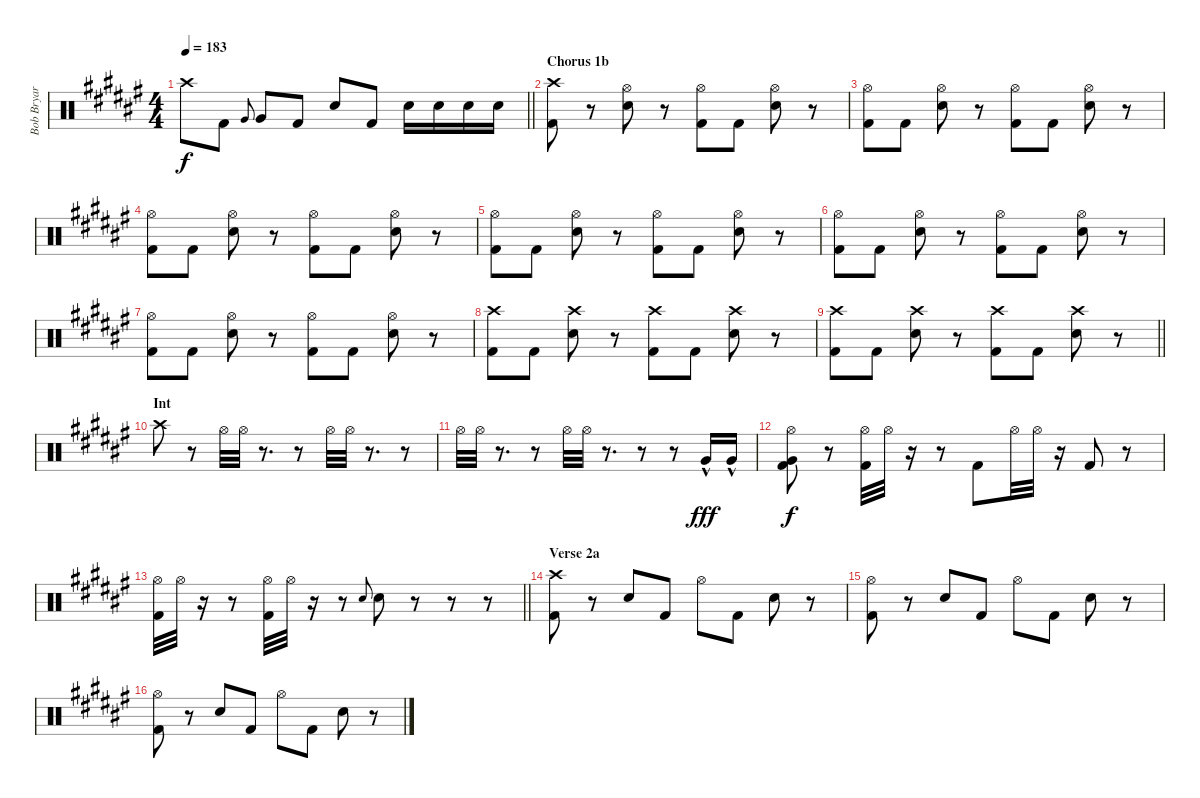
\track ("Bob Bryar" "Bob Bryar") {instrument percussion}
\staff {score}
\articulation defaults
\ts (4 4)
\tempo 183
\clef neutral
\barLineRight lightlight
\ks d#minor "Crash high (hit)".8{dy f} "Kick (hit) 2".8 "Very Low Tom (hit)".8{gr onbeat} "Very Low Tom (hit)".8 "Kick (hit) 2".8 "Electric Snare (hit)".8 "Kick (hit) 2".8 "Electric Snare (hit)".16 "Electric Snare (hit)".16 "Electric Snare (hit)".16 "Electric Snare (hit)".16
|
\section ("" "Chorus 1b")
("Crash high (hit)" "Kick (hit) 2").8 r.8 ("Hi-Hat (open)" "Electric Snare (hit)").8 r.8 ("Hi-Hat (open)" "Kick (hit) 2").8 "Kick (hit) 2".8 ("Hi-Hat (open)" "Electric Snare (hit)").8 r.8 |
("Hi-Hat (open)" "Kick (hit) 2").8 "Kick (hit) 2".8 ("Hi-Hat (open)" "Electric Snare (hit)").8 r.8 ("Hi-Hat (open)" "Kick (hit) 2").8 "Kick (hit) 2".8 ("Hi-Hat (open)" "Electric Snare (hit)").8 r.8 |
("Hi-Hat (open)" "Kick (hit) 2").8 "Kick (hit) 2".8 ("Hi-Hat (open)" "Electric Snare (hit)").8 r.8 ("Hi-Hat (open)" "Kick (hit) 2").8 "Kick (hit) 2".8 ("Hi-Hat (open)" "Electric Snare (hit)").8 r.8 |
("Hi-Hat (open)" "Kick (hit) 2").8 "Kick (hit) 2".8 ("Hi-Hat (open)" "Electric Snare (hit)").8 r.8 ("Hi-Hat (open)" "Kick (hit) 2").8 "Kick (hit) 2".8 ("Hi-Hat (open)" "Electric Snare (hit)").8 r.8 |
("Hi-Hat (open)" "Kick (hit) 2").8 "Kick (hit) 2".8 ("Hi-Hat (open)" "Electric Snare (hit)").8 r.8 ("Hi-Hat (open)" "Kick (hit) 2").8 "Kick (hit) 2".8 ("Hi-Hat (open)" "Electric Snare (hit)").8 r.8 |
("Hi-Hat (open)" "Kick (hit) 2").8 "Kick (hit) 2".8 ("Hi-Hat (open)" "Electric Snare (hit)").8 r.8 ("Hi-Hat (open)" "Kick (hit) 2").8 "Kick (hit) 2".8 ("Hi-Hat (open)" "Electric Snare (hit)").8 r.8 |
("Crash high (hit)" "Kick (hit) 2").8 "Kick (hit) 2".8 ("Crash high (hit)" "Electric Snare (hit)").8 r.8 ("Crash high (hit)" "Kick (hit) 2").8 "Kick (hit) 2".8 ("Crash high (hit)" "Electric Snare (hit)").8 r.8 |
\barLineRight lightlight
("Crash high (hit)" "Kick (hit) 2").8 "Kick (hit) 2".8 ("Crash high (hit)" "Electric Snare (hit)").8 r.8 ("Crash high (hit)" "Kick (hit) 2").8 "Kick (hit) 2".8 ("Crash high (hit)" "Electric Snare (hit)").8 r.8 |
\section ("" "Int")
"Crash high (hit)".8 r.8 "Hi-Hat (open)".32 "Hi-Hat (open)".32 r.8{d} r.8 "Hi-Hat (open)".32 "Hi-Hat (open)".32 r.8{d} r.8 |
"Hi-Hat (open)".32 "Hi-Hat (open)".32 r.8{d} r.8 "Hi-Hat (open)".32 "Hi-Hat (open)".32 r.8{d} r.8 r.8 "Very Low Tom (hit)"{hac}.16{dy fff} "Very Low Tom (hit)"{hac}.16 |
("Hi-Hat (open)" "Very Low Tom (hit)" "Kick (hit) 2").8{dy f} r.8 ("Hi-Hat (open)" "Kick (hit) 2").32 "Hi-Hat (open)".32 r.16 r.8 "Kick (hit) 2".8 "Hi-Hat (open)".32 "Hi-Hat (open)".32 r.16 "Kick (hit) 2".8 r.8 |
\barLineRight lightlight
("Hi-Hat (open)" "Kick (hit) 2").32 "Hi-Hat (open)".32 r.16 r.8 ("Hi-Hat (open)" "Kick (hit) 2").32 "Hi-Hat (open)".32 r.16 r.8 "Electric Snare (hit)".8{gr onbeat} "Electric Snare (hit)".8 r.8 r.8 r.8 |
\section ("" "Verse 2a")
("Crash high (hit)" "Kick (hit) 2").8 r.8 "Electric Snare (hit)".8 "Kick (hit) 2".8 "Hi-Hat (open)".8 "Kick (hit) 2".8 "Electric Snare (hit)".8 r.8 |
("Hi-Hat (open)" "Kick (hit) 2").8 r.8 "Electric Snare (hit)".8 "Kick (hit) 2".8 "Hi-Hat (open)".8 "Kick (hit) 2".8 "Electric Snare (hit)".8 r.8 |
("Hi-Hat (open)" "Kick (hit) 2").8 r.8 "Electric Snare (hit)".8 "Kick (hit) 2".8 "Hi-Hat (open)".8 "Kick (hit) 2".8 "Electric Snare (hit)".8 r.8
